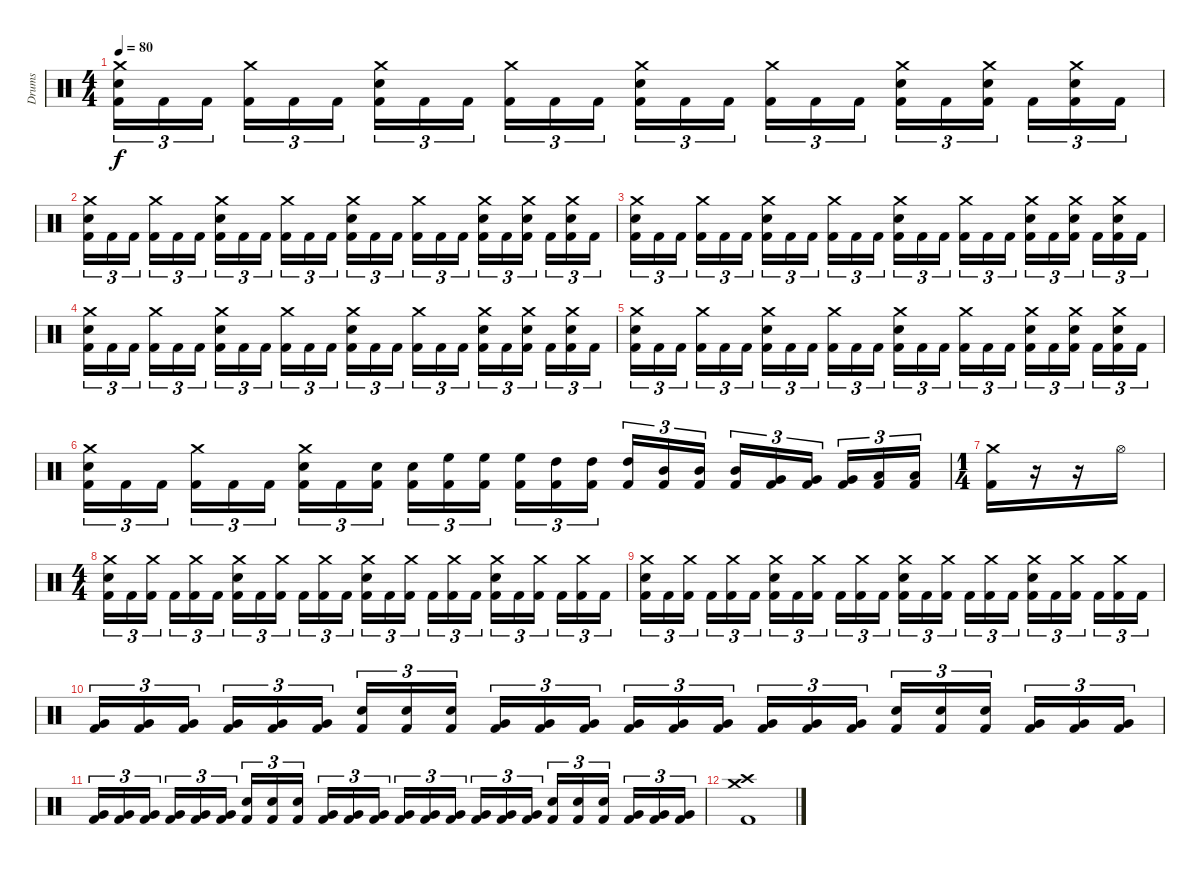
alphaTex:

\track ("Drums" "Drums") {instrument percussion}
\staff {score}
\articulation defaults
\ts (4 4)
\tempo 80
\clef neutral
\ks c
("Crash medium (hit)" "Electric Snare (hit)" "Kick (hit) 2").16{tu (3 2) dy f} "Kick (hit) 2".16{tu (3 2)} "Kick (hit) 2".16{tu (3 2) beam splitsecondary} ("Crash medium (hit)" "Kick (hit) 2").16{tu (3 2)} "Kick (hit) 2".16{tu (3 2)} "Kick (hit) 2".16{tu (3 2)} ("Crash medium (hit)" "Electric Snare (hit)" "Kick (hit) 2").16{tu (3 2)} "Kick (hit) 2".16{tu (3 2)} "Kick (hit) 2".16{tu (3 2) beam splitsecondary} ("Crash medium (hit)" "Kick (hit) 2").16{tu (3 2)} "Kick (hit) 2".16{tu (3 2)} "Kick (hit) 2".16{tu (3 2)} ("Crash medium (hit)" "Electric Snare (hit)" "Kick (hit) 2").16{tu (3 2)} "Kick (hit) 2".16{tu (3 2)} "Kick (hit) 2".16{tu (3 2) beam splitsecondary} ("Crash medium (hit)" "Kick (hit) 2").16{tu (3 2)} "Kick (hit) 2".16{tu (3 2)} "Kick (hit) 2".16{tu (3 2)} ("Crash medium (hit)" "Electric Snare (hit)" "Kick (hit) 2").16{tu (3 2)} "Kick (hit) 2".16{tu (3 2)} ("Crash medium (hit)" "Electric Snare (hit)" "Kick (hit) 2").16{tu (3 2) beam splitsecondary} "Kick (hit) 2".16{tu (3 2)} ("Crash medium (hit)" "Electric Snare (hit)" "Kick (hit) 2").16{tu (3 2)} "Kick (hit) 2".16{tu (3 2)} |
("Crash medium (hit)" "Electric Snare (hit)" "Kick (hit) 2").16{tu (3 2)} "Kick (hit) 2".16{tu (3 2)} "Kick (hit) 2".16{tu (3 2) beam splitsecondary} ("Crash medium (hit)" "Kick (hit) 2").16{tu (3 2)} "Kick (hit) 2".16{tu (3 2)} "Kick (hit) 2".16{tu (3 2)} ("Crash medium (hit)" "Electric Snare (hit)" "Kick (hit) 2").16{tu (3 2)} "Kick (hit) 2".16{tu (3 2)} "Kick (hit) 2".16{tu (3 2) beam splitsecondary} ("Crash medium (hit)" "Kick (hit) 2").16{tu (3 2)} "Kick (hit) 2".16{tu (3 2)} "Kick (hit) 2".16{tu (3 2)} ("Crash medium (hit)" "Electric Snare (hit)" "Kick (hit) 2").16{tu (3 2)} "Kick (hit) 2".16{tu (3 2)} "Kick (hit) 2".16{tu (3 2) beam splitsecondary} ("Crash medium (hit)" "Kick (hit) 2").16{tu (3 2)} "Kick (hit) 2".16{tu (3 2)} "Kick (hit) 2".16{tu (3 2)} ("Crash medium (hit)" "Electric Snare (hit)" "Kick (hit) 2").16{tu (3 2)} "Kick (hit) 2".16{tu (3 2)} ("Crash medium (hit)" "Electric Snare (hit)" "Kick (hit) 2").16{tu (3 2) beam splitsecondary} "Kick (hit) 2".16{tu (3 2)} ("Crash medium (hit)" "Electric Snare (hit)" "Kick (hit) 2").16{tu (3 2)} "Kick (hit) 2".16{tu (3 2)} |
("Crash medium (hit)" "Electric Snare (hit)" "Kick (hit) 2").16{tu (3 2)} "Kick (hit) 2".16{tu (3 2)} "Kick (hit) 2".16{tu (3 2) beam splitsecondary} ("Crash medium (hit)" "Kick (hit) 2").16{tu (3 2)} "Kick (hit) 2".16{tu (3 2)} "Kick (hit) 2".16{tu (3 2)} ("Crash medium (hit)" "Electric Snare (hit)" "Kick (hit) 2").16{tu (3 2)} "Kick (hit) 2".16{tu (3 2)} "Kick (hit) 2".16{tu (3 2) beam splitsecondary} ("Crash medium (hit)" "Kick (hit) 2").16{tu (3 2)} "Kick (hit) 2".16{tu (3 2)} "Kick (hit) 2".16{tu (3 2)} ("Crash medium (hit)" "Electric Snare (hit)" "Kick (hit) 2").16{tu (3 2)} "Kick (hit) 2".16{tu (3 2)} "Kick (hit) 2".16{tu (3 2) beam splitsecondary} ("Crash medium (hit)" "Kick (hit) 2").16{tu (3 2)} "Kick (hit) 2".16{tu (3 2)} "Kick (hit) 2".16{tu (3 2)} ("Crash medium (hit)" "Electric Snare (hit)" "Kick (hit) 2").16{tu (3 2)} "Kick (hit) 2".16{tu (3 2)} ("Crash medium (hit)" "Electric Snare (hit)" "Kick (hit) 2").16{tu (3 2) beam splitsecondary} "Kick (hit) 2".16{tu (3 2)} ("Crash medium (hit)" "Electric Snare (hit)" "Kick (hit) 2").16{tu (3 2)} "Kick (hit) 2".16{tu (3 2)} |
("Crash medium (hit)" "Electric Snare (hit)" "Kick (hit) 2").16{tu (3 2)} "Kick (hit) 2".16{tu (3 2)} "Kick (hit) 2".16{tu (3 2) beam splitsecondary} ("Crash medium (hit)" "Kick (hit) 2").16{tu (3 2)} "Kick (hit) 2".16{tu (3 2)} "Kick (hit) 2".16{tu (3 2)} ("Crash medium (hit)" "Electric Snare (hit)" "Kick (hit) 2").16{tu (3 2)} "Kick (hit) 2".16{tu (3 2)} "Kick (hit) 2".16{tu (3 2) beam splitsecondary} ("Crash medium (hit)" "Kick (hit) 2").16{tu (3 2)} "Kick (hit) 2".16{tu (3 2)} "Kick (hit) 2".16{tu (3 2)} ("Crash medium (hit)" "Electric Snare (hit)" "Kick (hit) 2").16{tu (3 2)} "Kick (hit) 2".16{tu (3 2)} "Kick (hit) 2".16{tu (3 2) beam splitsecondary} ("Crash medium (hit)" "Kick (hit) 2").16{tu (3 2)} "Kick (hit) 2".16{tu (3 2)} "Kick (hit) 2".16{tu (3 2)} ("Crash medium (hit)" "Electric Snare (hit)" "Kick (hit) 2").16{tu (3 2)} "Kick (hit) 2".16{tu (3 2)} ("Crash medium (hit)" "Electric Snare (hit)" "Kick (hit) 2").16{tu (3 2) beam splitsecondary} "Kick (hit) 2".16{tu (3 2)} ("Crash medium (hit)" "Electric Snare (hit)" "Kick (hit) 2").16{tu (3 2)} "Kick (hit) 2".16{tu (3 2)} |
("Crash medium (hit)" "Electric Snare (hit)" "Kick (hit) 2").16{tu (3 2)} "Kick (hit) 2".16{tu (3 2)} "Kick (hit) 2".16{tu (3 2) beam splitsecondary} ("Crash medium (hit)" "Kick (hit) 2").16{tu (3 2)} "Kick (hit) 2".16{tu (3 2)} "Kick (hit) 2".16{tu (3 2)} ("Crash medium (hit)" "Electric Snare (hit)" "Kick (hit) 2").16{tu (3 2)} "Kick (hit) 2".16{tu (3 2)} "Kick (hit) 2".16{tu (3 2) beam splitsecondary} ("Crash medium (hit)" "Kick (hit) 2").16{tu (3 2)} "Kick (hit) 2".16{tu (3 2)} "Kick (hit) 2".16{tu (3 2)} ("Crash medium (hit)" "Electric Snare (hit)" "Kick (hit) 2").16{tu (3 2)} "Kick (hit) 2".16{tu (3 2)} "Kick (hit) 2".16{tu (3 2) beam splitsecondary} ("Crash medium (hit)" "Kick (hit) 2").16{tu (3 2)} "Kick (hit) 2".16{tu (3 2)} "Kick (hit) 2".16{tu (3 2)} ("Crash medium (hit)" "Electric Snare (hit)" "Kick (hit) 2").16{tu (3 2)} "Kick (hit) 2".16{tu (3 2)} ("Crash medium (hit)" "Electric Snare (hit)" "Kick (hit) 2").16{tu (3 2) beam splitsecondary} "Kick (hit) 2".16{tu (3 2)} ("Crash medium (hit)" "Electric Snare (hit)" "Kick (hit) 2").16{tu (3 2)} "Kick (hit) 2".16{tu (3 2)} |
("Crash medium (hit)" "Electric Snare (hit)" "Kick (hit) 2").16{tu (3 2)} "Kick (hit) 2".16{tu (3 2)} "Kick (hit) 2".16{tu (3 2) beam splitsecondary} ("Crash medium (hit)" "Kick (hit) 2").16{tu (3 2)} "Kick (hit) 2".16{tu (3 2)} "Kick (hit) 2".16{tu (3 2)} ("Crash medium (hit)" "Electric Snare (hit)" "Kick (hit) 2").16{tu (3 2)} "Kick (hit) 2".16{tu (3 2)} ("Electric Snare (hit)" "Kick (hit) 2").16{tu (3 2) beam splitsecondary} ("Electric Snare (hit)" "Kick (hit) 2").16{tu (3 2)} ("High Floor Tom (hit)" "Kick (hit) 2").16{tu (3 2)} ("High Floor Tom (hit)" "Kick (hit) 2").16{tu (3 2)} ("High Floor Tom (hit)" "Kick (hit) 2").16{tu (3 2)} ("High Tom (hit)" "Kick (hit) 2").16{tu (3 2)} ("High Tom (hit)" "Kick (hit) 2").16{tu (3 2) beam splitsecondary} ("High Tom (hit)" "Kick (hit) 2").16{tu (3 2)} ("Mid Tom (hit)" "Kick (hit) 2").16{tu (3 2)} ("Mid Tom (hit)" "Kick (hit) 2").16{tu (3 2)} ("Mid Tom (hit)" "Kick (hit) 2").16{tu (3 2)} ("Very Low Tom (hit)" "Kick (hit) 2").16{tu (3 2)} ("Very Low Tom (hit)" "Kick (hit) 2").16{tu (3 2) beam splitsecondary} ("Very Low Tom (hit)" "Kick (hit) 2").16{tu (3 2)} ("Low Floor Tom (hit)" "Kick (hit) 2").16{tu (3 2)} ("Low Floor Tom (hit)" "Kick (hit) 2").16{tu (3 2)} |
\ts (1 4)
("Crash medium (hit)" "Kick (hit) 2").16 r.16 r.16 "Hi-Hat (open)".16 |
\ts (4 4)
("Crash medium (hit)" "Electric Snare (hit)" "Kick (hit) 2").16{tu (3 2)} "Kick (hit) 2".16{tu (3 2)} ("Crash medium (hit)" "Kick (hit) 2").16{tu (3 2) beam splitsecondary} "Kick (hit) 2".16{tu (3 2)} ("Crash medium (hit)" "Kick (hit) 2").16{tu (3 2)} "Kick (hit) 2".16{tu (3 2)} ("Crash medium (hit)" "Electric Snare (hit)" "Kick (hit) 2").16{tu (3 2)} "Kick (hit) 2".16{tu (3 2)} ("Crash medium (hit)" "Kick (hit) 2").16{tu (3 2) beam splitsecondary} "Kick (hit) 2".16{tu (3 2)} ("Crash medium (hit)" "Kick (hit) 2").16{tu (3 2)} "Kick (hit) 2".16{tu (3 2)} ("Crash medium (hit)" "Electric Snare (hit)" "Kick (hit) 2").16{tu (3 2)} "Kick (hit) 2".16{tu (3 2)} ("Crash medium (hit)" "Kick (hit) 2").16{tu (3 2) beam splitsecondary} "Kick (hit) 2".16{tu (3 2)} ("Crash medium (hit)" "Kick (hit) 2").16{tu (3 2)} "Kick (hit) 2".16{tu (3 2)} ("Crash medium (hit)" "Electric Snare (hit)" "Kick (hit) 2").16{tu (3 2)} "Kick (hit) 2".16{tu (3 2)} ("Crash medium (hit)" "Kick (hit) 2").16{tu (3 2) beam splitsecondary} "Kick (hit) 2".16{tu (3 2)} ("Crash medium (hit)" "Kick (hit) 2").16{tu (3 2)} "Kick (hit) 2".16{tu (3 2)} |
("Crash medium (hit)" "Electric Snare (hit)" "Kick (hit) 2").16{tu (3 2)} "Kick (hit) 2".16{tu (3 2)} ("Crash medium (hit)" "Kick (hit) 2").16{tu (3 2) beam splitsecondary} "Kick (hit) 2".16{tu (3 2)} ("Crash medium (hit)" "Kick (hit) 2").16{tu (3 2)} "Kick (hit) 2".16{tu (3 2)} ("Crash medium (hit)" "Electric Snare (hit)" "Kick (hit) 2").16{tu (3 2)} "Kick (hit) 2".16{tu (3 2)} ("Crash medium (hit)" "Kick (hit) 2").16{tu (3 2) beam splitsecondary} "Kick (hit) 2".16{tu (3 2)} ("Crash medium (hit)" "Kick (hit) 2").16{tu (3 2)} "Kick (hit) 2".16{tu (3 2)} ("Crash medium (hit)" "Electric Snare (hit)" "Kick (hit) 2").16{tu (3 2)} "Kick (hit) 2".16{tu (3 2)} ("Crash medium (hit)" "Kick (hit) 2").16{tu (3 2) beam splitsecondary} "Kick (hit) 2".16{tu (3 2)} ("Crash medium (hit)" "Kick (hit) 2").16{tu (3 2)} "Kick (hit) 2".16{tu (3 2)} ("Crash medium (hit)" "Electric Snare (hit)" "Kick (hit) 2").16{tu (3 2)} "Kick (hit) 2".16{tu (3 2)} ("Crash medium (hit)" "Kick (hit) 2").16{tu (3 2) beam splitsecondary} "Kick (hit) 2".16{tu (3 2)} ("Crash medium (hit)" "Kick (hit) 2").16{tu (3 2)} "Kick (hit) 2".16{tu (3 2)} |
("Very Low Tom (hit)" "Kick (hit) 2").16{tu (3 2)} ("Very Low Tom (hit)" "Kick (hit) 2").16{tu (3 2)} ("Very Low Tom (hit)" "Kick (hit) 2").16{tu (3 2) beam splitsecondary} ("Very Low Tom (hit)" "Kick (hit) 2").16{tu (3 2)} ("Very Low Tom (hit)" "Kick (hit) 2").16{tu (3 2)} ("Very Low Tom (hit)" "Kick (hit) 2").16{tu (3 2)} ("Electric Snare (hit)" "Kick (hit) 2").16{tu (3 2)} ("Electric Snare (hit)" "Kick (hit) 2").16{tu (3 2)} ("Electric Snare (hit)" "Kick (hit) 2").16{tu (3 2) beam splitsecondary} ("Very Low Tom (hit)" "Kick (hit) 2").16{tu (3 2)} ("Very Low Tom (hit)" "Kick (hit) 2").16{tu (3 2)} ("Very Low Tom (hit)" "Kick (hit) 2").16{tu (3 2)} ("Very Low Tom (hit)" "Kick (hit) 2").16{tu (3 2)} ("Very Low Tom (hit)" "Kick (hit) 2").16{tu (3 2)} ("Very Low Tom (hit)" "Kick (hit) 2").16{tu (3 2) beam splitsecondary} ("Very Low Tom (hit)" "Kick (hit) 2").16{tu (3 2)} ("Very Low Tom (hit)" "Kick (hit) 2").16{tu (3 2)} ("Very Low Tom (hit)" "Kick (hit) 2").16{tu (3 2)} ("Electric Snare (hit)" "Kick (hit) 2").16{tu (3 2)} ("Electric Snare (hit)" "Kick (hit) 2").16{tu (3 2)} ("Electric Snare (hit)" "Kick (hit) 2").16{tu (3 2) beam splitsecondary} ("Very Low Tom (hit)" "Kick (hit) 2").16{tu (3 2)} ("Very Low Tom (hit)" "Kick (hit) 2").16{tu (3 2)} ("Very Low Tom (hit)" "Kick (hit) 2").16{tu (3 2)} |
("Very Low Tom (hit)" "Kick (hit) 2").16{tu (3 2)} ("Very Low Tom (hit)" "Kick (hit) 2").16{tu (3 2)} ("Very Low Tom (hit)" "Kick (hit) 2").16{tu (3 2) beam splitsecondary} ("Very Low Tom (hit)" "Kick (hit) 2").16{tu (3 2)} ("Very Low Tom (hit)" "Kick (hit) 2").16{tu (3 2)} ("Very Low Tom (hit)" "Kick (hit) 2").16{tu (3 2)} ("Electric Snare (hit)" "Kick (hit) 2").16{tu (3 2)} ("Electric Snare (hit)" "Kick (hit) 2").16{tu (3 2)} ("Electric Snare (hit)" "Kick (hit) 2").16{tu (3 2) beam splitsecondary} ("Very Low Tom (hit)" "Kick (hit) 2").16{tu (3 2)} ("Very Low Tom (hit)" "Kick (hit) 2").16{tu (3 2)} ("Very Low Tom (hit)" "Kick (hit) 2").16{tu (3 2)} ("Very Low Tom (hit)" "Kick (hit) 2").16{tu (3 2)} ("Very Low Tom (hit)" "Kick (hit) 2").16{tu (3 2)} ("Very Low Tom (hit)" "Kick (hit) 2").16{tu (3 2) beam splitsecondary} ("Very Low Tom (hit)" "Kick (hit) 2").16{tu (3 2)} ("Very Low Tom (hit)" "Kick (hit) 2").16{tu (3 2)} ("Very Low Tom (hit)" "Kick (hit) 2").16{tu (3 2)} ("Electric Snare (hit)" "Kick (hit) 2").16{tu (3 2)} ("Electric Snare (hit)" "Kick (hit) 2").16{tu (3 2)} ("Electric Snare (hit)" "Kick (hit) 2").16{tu (3 2) beam splitsecondary} ("Very Low Tom (hit)" "Kick (hit) 2").16{tu (3 2)} ("Very Low Tom (hit)" "Kick (hit) 2").16{tu (3 2)} ("Very Low Tom (hit)" "Kick (hit) 2").16{tu (3 2)} |
("Crash medium (hit)" "Crash high (hit)" "Kick (hit) 2").1
